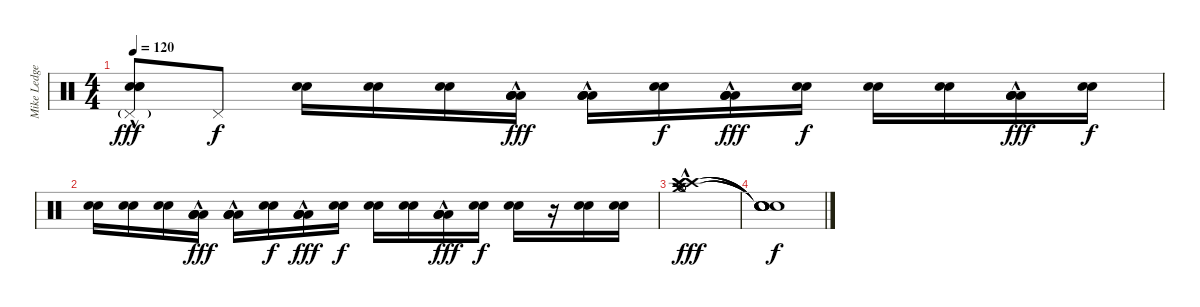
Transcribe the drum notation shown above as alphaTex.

\track ("Mike Ledger - Drums" "Mike Ledge") {instrument percussion}
\staff {score}
\articulation defaults
\ts (4 4)
\tempo 120
\clef neutral
\ks c
("Pedal Hi-Hat (hit)"{g} "Snare (hit) 2"{hac} "Snare (hit) 2"{hac} "Snare (hit) 2"{hac}).8{dy fff} "Pedal Hi-Hat (hit)".8{dy f} ("Snare (hit) 2" "Snare (hit) 2").16 ("Snare (hit) 2" "Snare (hit) 2").16 ("Snare (hit) 2" "Snare (hit) 2").16 ("Low Floor Tom (hit)"{hac} "Low Floor Tom (hit)"{hac} "Low Floor Tom (hit)"{hac} "Low Floor Tom (hit)"{hac}).16{dy fff} ("Low Floor Tom (hit)"{hac} "Low Floor Tom (hit)"{hac} "Low Floor Tom (hit)"{hac} "Low Floor Tom (hit)"{hac}).16 ("Snare (hit) 2" "Snare (hit) 2").16{dy f} ("Low Floor Tom (hit)"{hac} "Low Floor Tom (hit)"{hac} "Low Floor Tom (hit)"{hac} "Low Floor Tom (hit)"{hac}).16{dy fff} ("Snare (hit) 2" "Snare (hit) 2").16{dy f} ("Snare (hit) 2" "Snare (hit) 2").16 ("Snare (hit) 2" "Snare (hit) 2").16 ("Low Floor Tom (hit)"{hac} "Low Floor Tom (hit)"{hac} "Low Floor Tom (hit)"{hac} "Low Floor Tom (hit)"{hac}).16{dy fff} ("Snare (hit) 2" "Snare (hit) 2").16{dy f} |
("Snare (hit) 2" "Snare (hit) 2").16 ("Snare (hit) 2" "Snare (hit) 2").16 ("Snare (hit) 2" "Snare (hit) 2").16 ("Low Floor Tom (hit)"{hac} "Low Floor Tom (hit)"{hac} "Low Floor Tom (hit)"{hac} "Low Floor Tom (hit)"{hac}).16{dy fff} ("Low Floor Tom (hit)"{hac} "Low Floor Tom (hit)"{hac} "Low Floor Tom (hit)"{hac} "Low Floor Tom (hit)"{hac}).16 ("Snare (hit) 2" "Snare (hit) 2").16{dy f} ("Low Floor Tom (hit)"{hac} "Low Floor Tom (hit)"{hac} "Low Floor Tom (hit)"{hac} "Low Floor Tom (hit)"{hac}).16{dy fff} ("Snare (hit) 2" "Snare (hit) 2").16{dy f} ("Snare (hit) 2" "Snare (hit) 2").16 ("Snare (hit) 2" "Snare (hit) 2").16 ("Low Floor Tom (hit)"{hac} "Low Floor Tom (hit)"{hac} "Low Floor Tom (hit)"{hac} "Low Floor Tom (hit)"{hac}).16{dy fff} ("Snare (hit) 2" "Snare (hit) 2").16{dy f} ("Snare (hit) 2" "Snare (hit) 2").16 r.16 ("Snare (hit) 2" "Snare (hit) 2").16 ("Snare (hit) 2" "Snare (hit) 2").16 |
("Hi-Hat (open)"{hac} "Hi-Hat (open)"{hac} "Crash high (hit)"{hac} "Crash high (hit)"{hac} "Crash high (hit)"{hac} "Crash medium (hit)"{hac}).1{dy fff} |
("Snare (hit)"{t} "Snare (hit)"{t} "Snare (hit)"{t} "Snare (hit)"{t} "Snare (hit)"{t} "Snare (hit)"{t}).1{dy f}
